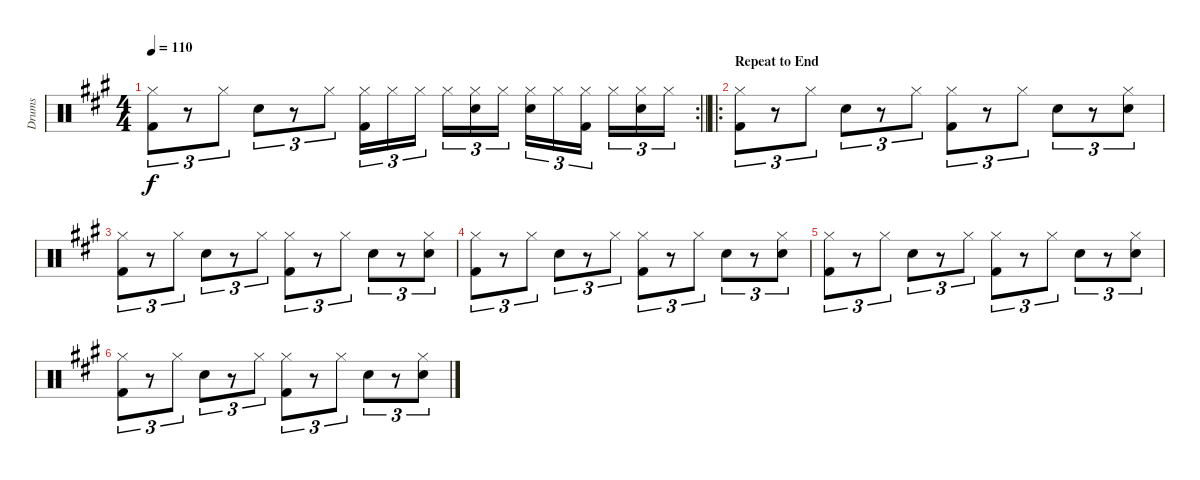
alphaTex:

\track ("Drums" "Drums") {instrument percussion}
\staff {score}
\articulation defaults
\rc 2
\ts (4 4)
\tempo 110
\clef neutral
\barLineRight lightlight
\ks a
("Hi-Hat (closed)" "Kick (hit) 2").8{tu (3 2) dy f} r.8{tu (3 2)} "Hi-Hat (closed)".8{tu (3 2)} "Snare (hit) 2".8{tu (3 2)} r.8{tu (3 2)} "Hi-Hat (closed)".8{tu (3 2)} ("Hi-Hat (closed)" "Kick (hit) 2").16{tu (3 2)} "Hi-Hat (closed)".16{tu (3 2)} "Hi-Hat (closed)".16{tu (3 2) beam splitsecondary} "Hi-Hat (closed)".16{tu (3 2)} ("Hi-Hat (closed)" "Snare (hit) 2").16{tu (3 2)} "Hi-Hat (closed)".16{tu (3 2)} ("Hi-Hat (closed)" "Snare (hit) 2").16{tu (3 2)} "Hi-Hat (closed)".16{tu (3 2)} ("Hi-Hat (closed)" "Kick (hit) 2").16{tu (3 2) beam splitsecondary} "Hi-Hat (closed)".16{tu (3 2)} ("Hi-Hat (closed)" "Snare (hit) 2").16{tu (3 2)} "Hi-Hat (closed)".16{tu (3 2)} |
\ro
\section ("" "Repeat to End")
("Hi-Hat (closed)" "Kick (hit) 2").8{tu (3 2)} r.8{tu (3 2)} "Hi-Hat (closed)".8{tu (3 2)} "Snare (hit) 2".8{tu (3 2)} r.8{tu (3 2)} "Hi-Hat (closed)".8{tu (3 2)} ("Hi-Hat (closed)" "Kick (hit) 2").8{tu (3 2)} r.8{tu (3 2)} "Hi-Hat (closed)".8{tu (3 2)} "Snare (hit) 2".8{tu (3 2)} r.8{tu (3 2)} ("Hi-Hat (closed)" "Snare (hit) 2").8{tu (3 2)} |
("Hi-Hat (closed)" "Kick (hit) 2").8{tu (3 2)} r.8{tu (3 2)} "Hi-Hat (closed)".8{tu (3 2)} "Snare (hit) 2".8{tu (3 2)} r.8{tu (3 2)} "Hi-Hat (closed)".8{tu (3 2)} ("Hi-Hat (closed)" "Kick (hit) 2").8{tu (3 2)} r.8{tu (3 2)} "Hi-Hat (closed)".8{tu (3 2)} "Snare (hit) 2".8{tu (3 2)} r.8{tu (3 2)} ("Hi-Hat (closed)" "Snare (hit) 2").8{tu (3 2)} |
("Hi-Hat (closed)" "Kick (hit) 2").8{tu (3 2)} r.8{tu (3 2)} "Hi-Hat (closed)".8{tu (3 2)} "Snare (hit) 2".8{tu (3 2)} r.8{tu (3 2)} "Hi-Hat (closed)".8{tu (3 2)} ("Hi-Hat (closed)" "Kick (hit) 2").8{tu (3 2)} r.8{tu (3 2)} "Hi-Hat (closed)".8{tu (3 2)} "Snare (hit) 2".8{tu (3 2)} r.8{tu (3 2)} ("Hi-Hat (closed)" "Snare (hit) 2").8{tu (3 2)} |
("Hi-Hat (closed)" "Kick (hit) 2").8{tu (3 2)} r.8{tu (3 2)} "Hi-Hat (closed)".8{tu (3 2)} "Snare (hit) 2".8{tu (3 2)} r.8{tu (3 2)} "Hi-Hat (closed)".8{tu (3 2)} ("Hi-Hat (closed)" "Kick (hit) 2").8{tu (3 2)} r.8{tu (3 2)} "Hi-Hat (closed)".8{tu (3 2)} "Snare (hit) 2".8{tu (3 2)} r.8{tu (3 2)} ("Hi-Hat (closed)" "Snare (hit) 2").8{tu (3 2)} |
("Hi-Hat (closed)" "Kick (hit) 2").8{tu (3 2)} r.8{tu (3 2)} "Hi-Hat (closed)".8{tu (3 2)} "Snare (hit) 2".8{tu (3 2)} r.8{tu (3 2)} "Hi-Hat (closed)".8{tu (3 2)} ("Hi-Hat (closed)" "Kick (hit) 2").8{tu (3 2)} r.8{tu (3 2)} "Hi-Hat (closed)".8{tu (3 2)} "Snare (hit) 2".8{tu (3 2)} r.8{tu (3 2)} ("Hi-Hat (closed)" "Snare (hit) 2").8{tu (3 2)}
